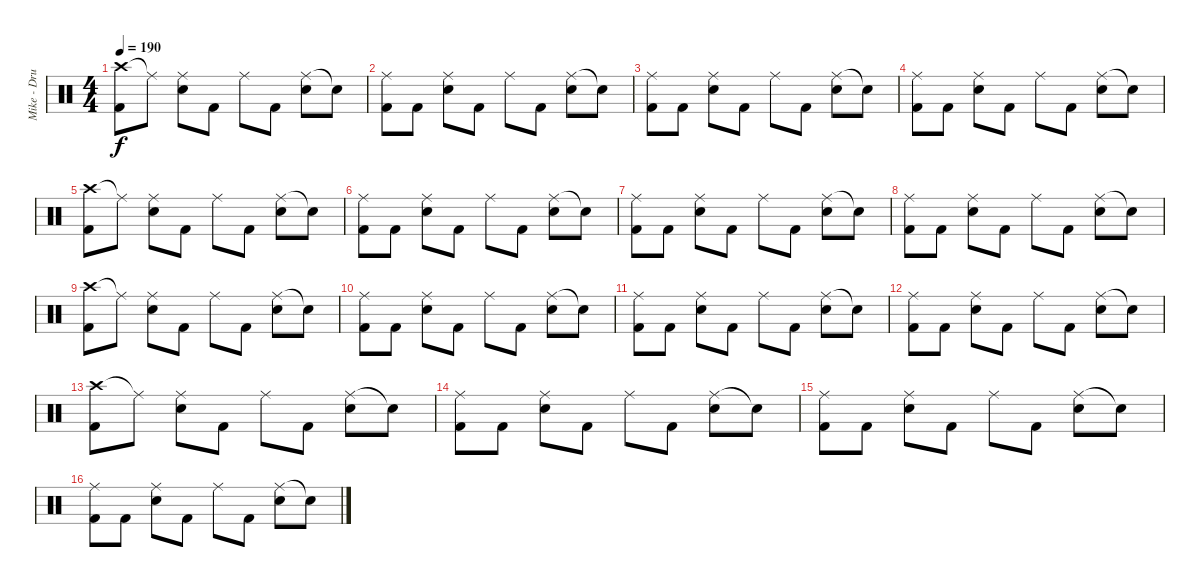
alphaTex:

\track ("Mike - Drums" "Mike - Dru") {instrument percussion}
\staff {score}
\articulation defaults
\ts (4 4)
\tempo 190
\clef neutral
\ks c
("Crash high (hit)" "Kick (hit) 2").8{dy f} "Ride (middle)"{t}.8 ("Ride (middle)" "Snare (hit) 2").8 "Kick (hit) 2".8 "Ride (middle)".8 "Kick (hit) 2".8 ("Ride (middle)" "Snare (hit) 2").8 "Snare (hit)"{t}.8 |
("Ride (middle)" "Kick (hit) 2").8 "Kick (hit) 2".8 ("Ride (middle)" "Snare (hit) 2").8 "Kick (hit) 2".8 "Ride (middle)".8 "Kick (hit) 2".8 ("Ride (middle)" "Snare (hit) 2").8 "Snare (hit)"{t}.8 |
("Ride (middle)" "Kick (hit) 2").8 "Kick (hit) 2".8 ("Ride (middle)" "Snare (hit) 2").8 "Kick (hit) 2".8 "Ride (middle)".8 "Kick (hit) 2".8 ("Ride (middle)" "Snare (hit) 2").8 "Snare (hit)"{t}.8 |
("Ride (middle)" "Kick (hit) 2").8 "Kick (hit) 2".8 ("Ride (middle)" "Snare (hit) 2").8 "Kick (hit) 2".8 "Ride (middle)".8 "Kick (hit) 2".8 ("Ride (middle)" "Snare (hit) 2").8 "Snare (hit)"{t}.8 |
("Crash high (hit)" "Kick (hit) 2").8 "Ride (middle)"{t}.8 ("Ride (middle)" "Snare (hit) 2").8 "Kick (hit) 2".8 "Ride (middle)".8 "Kick (hit) 2".8 ("Ride (middle)" "Snare (hit) 2").8 "Snare (hit)"{t}.8 |
("Ride (middle)" "Kick (hit) 2").8 "Kick (hit) 2".8 ("Ride (middle)" "Snare (hit) 2").8 "Kick (hit) 2".8 "Ride (middle)".8 "Kick (hit) 2".8 ("Ride (middle)" "Snare (hit) 2").8 "Snare (hit)"{t}.8 |
("Ride (middle)" "Kick (hit) 2").8 "Kick (hit) 2".8 ("Ride (middle)" "Snare (hit) 2").8 "Kick (hit) 2".8 "Ride (middle)".8 "Kick (hit) 2".8 ("Ride (middle)" "Snare (hit) 2").8 "Snare (hit)"{t}.8 |
("Ride (middle)" "Kick (hit) 2").8 "Kick (hit) 2".8 ("Ride (middle)" "Snare (hit) 2").8 "Kick (hit) 2".8 "Ride (middle)".8 "Kick (hit) 2".8 ("Ride (middle)" "Snare (hit) 2").8 "Snare (hit)"{t}.8 |
("Crash high (hit)" "Kick (hit) 2").8 "Ride (middle)"{t}.8 ("Ride (middle)" "Snare (hit) 2").8 "Kick (hit) 2".8 "Ride (middle)".8 "Kick (hit) 2".8 ("Ride (middle)" "Snare (hit) 2").8 "Snare (hit)"{t}.8 |
("Ride (middle)" "Kick (hit) 2").8 "Kick (hit) 2".8 ("Ride (middle)" "Snare (hit) 2").8 "Kick (hit) 2".8 "Ride (middle)".8 "Kick (hit) 2".8 ("Ride (middle)" "Snare (hit) 2").8 "Snare (hit)"{t}.8 |
("Ride (middle)" "Kick (hit) 2").8 "Kick (hit) 2".8 ("Ride (middle)" "Snare (hit) 2").8 "Kick (hit) 2".8 "Ride (middle)".8 "Kick (hit) 2".8 ("Ride (middle)" "Snare (hit) 2").8 "Snare (hit)"{t}.8 |
("Ride (middle)" "Kick (hit) 2").8 "Kick (hit) 2".8 ("Ride (middle)" "Snare (hit) 2").8 "Kick (hit) 2".8 "Ride (middle)".8 "Kick (hit) 2".8 ("Ride (middle)" "Snare (hit) 2").8 "Snare (hit)"{t}.8 |
("Crash high (hit)" "Kick (hit) 2").8 "Ride (middle)"{t}.8 ("Ride (middle)" "Snare (hit) 2").8 "Kick (hit) 2".8 "Ride (middle)".8 "Kick (hit) 2".8 ("Ride (middle)" "Snare (hit) 2").8 "Snare (hit)"{t}.8 |
("Ride (middle)" "Kick (hit) 2").8 "Kick (hit) 2".8 ("Ride (middle)" "Snare (hit) 2").8 "Kick (hit) 2".8 "Ride (middle)".8 "Kick (hit) 2".8 ("Ride (middle)" "Snare (hit) 2").8 "Snare (hit)"{t}.8 |
("Ride (middle)" "Kick (hit) 2").8 "Kick (hit) 2".8 ("Ride (middle)" "Snare (hit) 2").8 "Kick (hit) 2".8 "Ride (middle)".8 "Kick (hit) 2".8 ("Ride (middle)" "Snare (hit) 2").8 "Snare (hit)"{t}.8 |
("Ride (middle)" "Kick (hit) 2").8 "Kick (hit) 2".8 ("Ride (middle)" "Snare (hit) 2").8 "Kick (hit) 2".8 "Ride (middle)".8 "Kick (hit) 2".8 ("Ride (middle)" "Snare (hit) 2").8 "Snare (hit)"{t}.8
